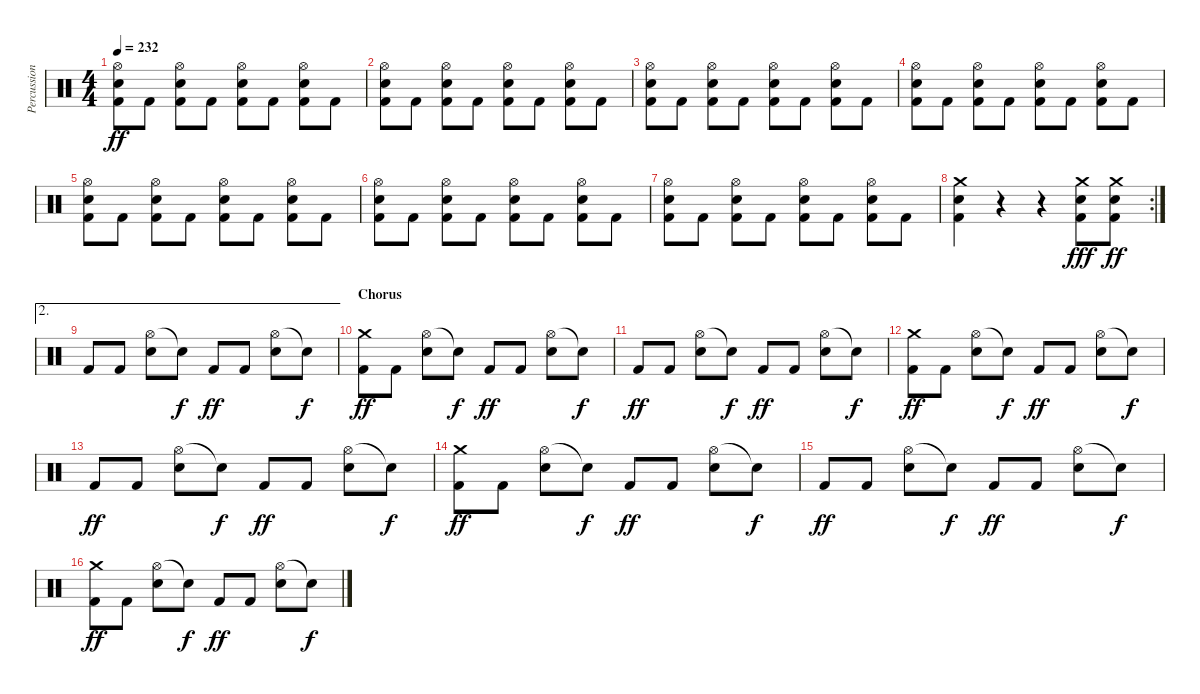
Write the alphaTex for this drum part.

\track ("Percussion" "Percussion") {instrument percussion}
\staff {score}
\articulation defaults
\ts (4 4)
\tempo 232
\clef neutral
\ks c
("Hi-Hat (open)" "Snare (hit) 2" "Kick (hit) 2").8{dy ff} "Kick (hit) 2".8 ("Hi-Hat (open)" "Snare (hit) 2" "Kick (hit) 2").8 "Kick (hit) 2".8 ("Hi-Hat (open)" "Snare (hit) 2" "Kick (hit) 2").8 "Kick (hit) 2".8 ("Hi-Hat (open)" "Snare (hit) 2" "Kick (hit) 2").8 "Kick (hit) 2".8 |
("Hi-Hat (open)" "Snare (hit) 2" "Kick (hit) 2").8 "Kick (hit) 2".8 ("Hi-Hat (open)" "Snare (hit) 2" "Kick (hit) 2").8 "Kick (hit) 2".8 ("Hi-Hat (open)" "Snare (hit) 2" "Kick (hit) 2").8 "Kick (hit) 2".8 ("Hi-Hat (open)" "Snare (hit) 2" "Kick (hit) 2").8 "Kick (hit) 2".8 |
("Hi-Hat (open)" "Snare (hit) 2" "Kick (hit) 2").8 "Kick (hit) 2".8 ("Hi-Hat (open)" "Snare (hit) 2" "Kick (hit) 2").8 "Kick (hit) 2".8 ("Hi-Hat (open)" "Snare (hit) 2" "Kick (hit) 2").8 "Kick (hit) 2".8 ("Hi-Hat (open)" "Snare (hit) 2" "Kick (hit) 2").8 "Kick (hit) 2".8 |
("Hi-Hat (open)" "Snare (hit) 2" "Kick (hit) 2").8 "Kick (hit) 2".8 ("Hi-Hat (open)" "Snare (hit) 2" "Kick (hit) 2").8 "Kick (hit) 2".8 ("Hi-Hat (open)" "Snare (hit) 2" "Kick (hit) 2").8 "Kick (hit) 2".8 ("Hi-Hat (open)" "Snare (hit) 2" "Kick (hit) 2").8 "Kick (hit) 2".8 |
("Hi-Hat (open)" "Snare (hit) 2" "Kick (hit) 2").8 "Kick (hit) 2".8 ("Hi-Hat (open)" "Snare (hit) 2" "Kick (hit) 2").8 "Kick (hit) 2".8 ("Hi-Hat (open)" "Snare (hit) 2" "Kick (hit) 2").8 "Kick (hit) 2".8 ("Hi-Hat (open)" "Snare (hit) 2" "Kick (hit) 2").8 "Kick (hit) 2".8 |
("Hi-Hat (open)" "Snare (hit) 2" "Kick (hit) 2").8 "Kick (hit) 2".8 ("Hi-Hat (open)" "Snare (hit) 2" "Kick (hit) 2").8 "Kick (hit) 2".8 ("Hi-Hat (open)" "Snare (hit) 2" "Kick (hit) 2").8 "Kick (hit) 2".8 ("Hi-Hat (open)" "Snare (hit) 2" "Kick (hit) 2").8 "Kick (hit) 2".8 |
("Hi-Hat (open)" "Snare (hit) 2" "Kick (hit) 2").8 "Kick (hit) 2".8 ("Hi-Hat (open)" "Snare (hit) 2" "Kick (hit) 2").8 "Kick (hit) 2".8 ("Hi-Hat (open)" "Snare (hit) 2" "Kick (hit) 2").8 "Kick (hit) 2".8 ("Hi-Hat (open)" "Snare (hit) 2" "Kick (hit) 2").8 "Kick (hit) 2".8 |
\rc 2
("Crash medium (hit)" "Snare (hit) 2" "Kick (hit) 2").4 r.4 r.4 ("Crash medium (hit)" "Snare (hit) 2" "Kick (hit) 2").8{dy fff} ("Crash medium (hit)" "Snare (hit) 2" "Kick (hit) 2").8{dy ff} |
\ae 2 "Kick (hit) 2".8 "Kick (hit) 2".8
("Hi-Hat (open)" "Snare (hit) 2").8 "Snare (hit)"{t}.8{dy f} "Kick (hit) 2".8{dy ff} "Kick (hit) 2".8 ("Hi-Hat (open)" "Snare (hit) 2").8 "Snare (hit)"{t}.8{dy f} |
\section ("" "Chorus")
("Crash medium (hit)" "Kick (hit) 2").8{dy ff} "Kick (hit) 2".8 ("Hi-Hat (open)" "Snare (hit) 2").8 "Snare (hit)"{t}.8{dy f} "Kick (hit) 2".8{dy ff} "Kick (hit) 2".8 ("Hi-Hat (open)" "Snare (hit) 2").8 "Snare (hit)"{t}.8{dy f} |
"Kick (hit) 2".8{dy ff} "Kick (hit) 2".8 ("Hi-Hat (open)" "Snare (hit) 2").8 "Snare (hit)"{t}.8{dy f} "Kick (hit) 2".8{dy ff} "Kick (hit) 2".8 ("Hi-Hat (open)" "Snare (hit) 2").8 "Snare (hit)"{t}.8{dy f} |
("Crash medium (hit)" "Kick (hit) 2").8{dy ff} "Kick (hit) 2".8 ("Hi-Hat (open)" "Snare (hit) 2").8 "Snare (hit)"{t}.8{dy f} "Kick (hit) 2".8{dy ff} "Kick (hit) 2".8 ("Hi-Hat (open)" "Snare (hit) 2").8 "Snare (hit)"{t}.8{dy f} |
"Kick (hit) 2".8{dy ff} "Kick (hit) 2".8 ("Hi-Hat (open)" "Snare (hit) 2").8 "Snare (hit)"{t}.8{dy f} "Kick (hit) 2".8{dy ff} "Kick (hit) 2".8 ("Hi-Hat (open)" "Snare (hit) 2").8 "Snare (hit)"{t}.8{dy f} |
("Crash medium (hit)" "Kick (hit) 2").8{dy ff} "Kick (hit) 2".8 ("Hi-Hat (open)" "Snare (hit) 2").8 "Snare (hit)"{t}.8{dy f} "Kick (hit) 2".8{dy ff} "Kick (hit) 2".8 ("Hi-Hat (open)" "Snare (hit) 2").8 "Snare (hit)"{t}.8{dy f} |
"Kick (hit) 2".8{dy ff} "Kick (hit) 2".8 ("Hi-Hat (open)" "Snare (hit) 2").8 "Snare (hit)"{t}.8{dy f} "Kick (hit) 2".8{dy ff} "Kick (hit) 2".8 ("Hi-Hat (open)" "Snare (hit) 2").8 "Snare (hit)"{t}.8{dy f} |
("Crash medium (hit)" "Kick (hit) 2").8{dy ff} "Kick (hit) 2".8 ("Hi-Hat (open)" "Snare (hit) 2").8 "Snare (hit)"{t}.8{dy f} "Kick (hit) 2".8{dy ff} "Kick (hit) 2".8 ("Hi-Hat (open)" "Snare (hit) 2").8 "Snare (hit)"{t}.8{dy f}
